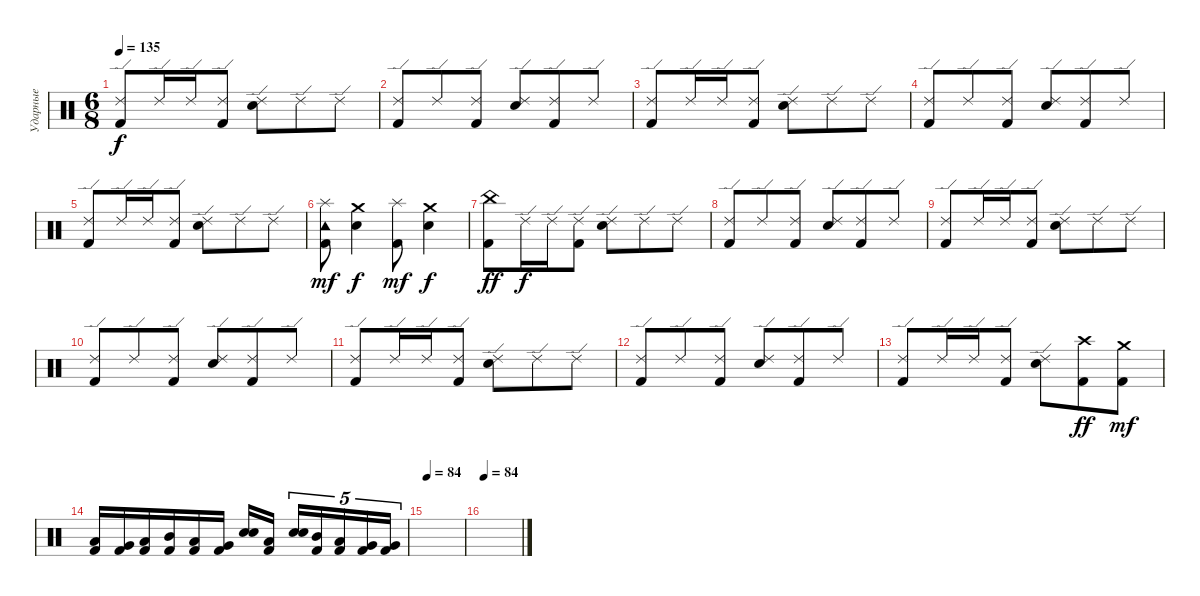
\track ("Ударные" "Ударные") {instrument percussion}
\staff {score}
\articulation defaults
\ts (6 8)
\tempo 135
\clef neutral
\ks c
("Ride (edge) 2" "Kick (hit) 2").8{dy f} "Ride (edge) 2".16 "Ride (edge) 2".16 ("Ride (edge) 2" "Kick (hit) 2").8 ("Ride (edge) 2" "Electric Snare (hit)").8 "Ride (edge) 2".8 "Ride (edge) 2".8 |
("Ride (edge) 2" "Kick (hit) 2").8 "Ride (edge) 2".8 ("Ride (edge) 2" "Kick (hit) 2").8 ("Ride (edge) 2" "Electric Snare (hit)").8 ("Ride (edge) 2" "Kick (hit) 2").8 "Ride (edge) 2".8 |
("Ride (edge) 2" "Kick (hit) 2").8 "Ride (edge) 2".16 "Ride (edge) 2".16 ("Ride (edge) 2" "Kick (hit) 2").8 ("Ride (edge) 2" "Electric Snare (hit)").8 "Ride (edge) 2".8 "Ride (edge) 2".8 |
("Ride (edge) 2" "Kick (hit) 2").8 "Ride (edge) 2".8 ("Ride (edge) 2" "Kick (hit) 2").8 ("Ride (edge) 2" "Electric Snare (hit)").8 ("Ride (edge) 2" "Kick (hit) 2").8 "Ride (edge) 2".8 |
("Ride (edge) 2" "Kick (hit) 2").8 "Ride (edge) 2".16 "Ride (edge) 2".16 ("Ride (edge) 2" "Kick (hit) 2").8 ("Ride (edge) 2" "Electric Snare (hit)").8 "Ride (edge) 2".8 "Ride (edge) 2".8 |
("Kick (hit) 2" "Tambourine (hit)" "Splash (hit)").8{dy mf} ("Electric Snare (hit)" "Crash medium (hit)").4{dy f} ("Kick (hit) 2" "Splash (hit)").8{dy mf} ("Electric Snare (hit)" "Crash medium (hit)").4{dy f} |
("China (hit)" "Kick (hit) 2").8{dy ff} "Ride (edge) 2".16{dy f} "Ride (edge) 2".16 ("Ride (edge) 2" "Kick (hit) 2").8 ("Ride (edge) 2" "Electric Snare (hit)").8 "Ride (edge) 2".8 "Ride (edge) 2".8 |
("Ride (edge) 2" "Kick (hit) 2").8 "Ride (edge) 2".8 ("Ride (edge) 2" "Kick (hit) 2").8 ("Ride (edge) 2" "Electric Snare (hit)").8 ("Ride (edge) 2" "Kick (hit) 2").8 "Ride (edge) 2".8 |
("Ride (edge) 2" "Kick (hit) 2").8 "Ride (edge) 2".16 "Ride (edge) 2".16 ("Ride (edge) 2" "Kick (hit) 2").8 ("Ride (edge) 2" "Electric Snare (hit)").8 "Ride (edge) 2".8 "Ride (edge) 2".8 |
("Ride (edge) 2" "Kick (hit) 2").8 "Ride (edge) 2".8 ("Ride (edge) 2" "Kick (hit) 2").8 ("Ride (edge) 2" "Electric Snare (hit)").8 ("Ride (edge) 2" "Kick (hit) 2").8 "Ride (edge) 2".8 |
("Ride (edge) 2" "Kick (hit) 2").8 "Ride (edge) 2".16 "Ride (edge) 2".16 ("Ride (edge) 2" "Kick (hit) 2").8 ("Ride (edge) 2" "Electric Snare (hit)").8 "Ride (edge) 2".8 "Ride (edge) 2".8 |
("Ride (edge) 2" "Kick (hit) 2").8 "Ride (edge) 2".8 ("Ride (edge) 2" "Kick (hit) 2").8 ("Ride (edge) 2" "Electric Snare (hit)").8 ("Ride (edge) 2" "Kick (hit) 2").8 "Ride (edge) 2".8 |
("Ride (edge) 2" "Kick (hit) 2").8 "Ride (edge) 2".16 "Ride (edge) 2".16 ("Ride (edge) 2" "Kick (hit) 2").8 ("Ride (edge) 2" "Electric Snare (hit)").8 ("Crash high (hit)" "Kick (hit) 2").8{dy ff} ("Crash medium (hit)" "Kick (hit) 2").8{dy mf} |
("Low Tom (hit)" "Kick (hit) 2").16 ("Very Low Tom (hit)" "Kick (hit) 2").16 ("Low Tom (hit)" "Kick (hit) 2").16 ("Mid Tom (hit)" "Kick (hit) 2").16 ("Low Tom (hit)" "Kick (hit) 2").16 ("Very Low Tom (hit)" "Kick (hit) 2").16 ("Snare (hit) 2" "Electric Snare (hit)").16 ("Low Floor Tom (hit)" "Kick (hit) 2").16 ("Snare (hit) 2" "Electric Snare (hit)").16{tu (5 4)} ("Mid Tom (hit)" "Kick (hit) 2").16{tu (5 4)} ("Low Tom (hit)" "Kick (hit) 2").16{tu (5 4)} ("Very Low Tom (hit)" "Kick (hit) 2").16{tu (5 4)} ("Very Low Tom (hit)" "Kick (hit) 2").16{tu (5 4)} |
\section ("" "")
\tempo 84
|
\tempo 84
